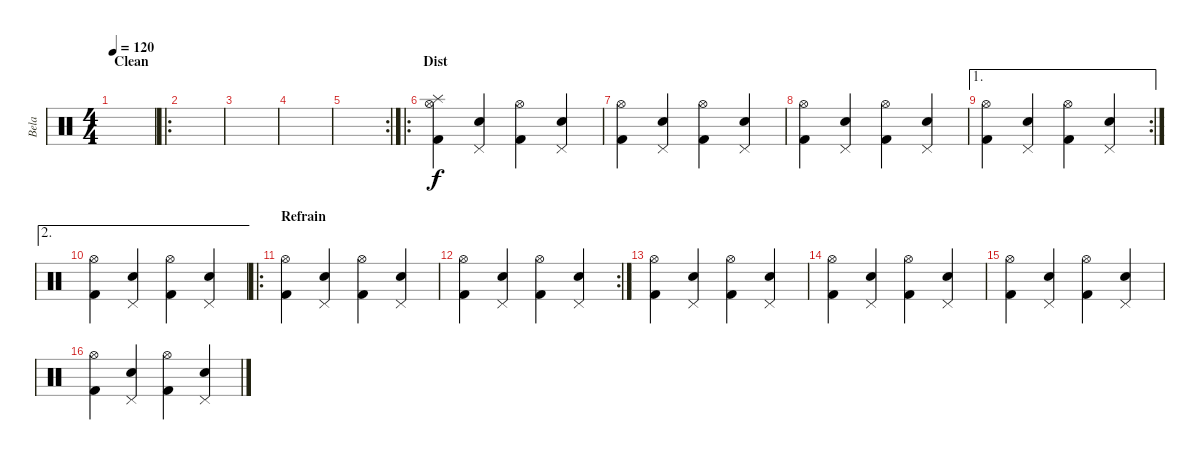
\track ("Bela" "Bela") {instrument percussion}
\staff {score}
\articulation defaults
\ts (4 4)
\section ("" "Clean")
\tempo 120
\clef neutral
\ks c
|
\ro
|
|
|
\rc 2
|
\ro
\section ("" "Dist")
("Hi-Hat (open)" "Splash (hit)" "Kick (hit) 2").4 ("Pedal Hi-Hat (hit)" "Electric Snare (hit)").4 ("Hi-Hat (open)" "Kick (hit) 2").4 ("Pedal Hi-Hat (hit)" "Electric Snare (hit)").4 |
("Hi-Hat (open)" "Kick (hit) 2").4 ("Pedal Hi-Hat (hit)" "Electric Snare (hit)").4 ("Hi-Hat (open)" "Kick (hit) 2").4 ("Pedal Hi-Hat (hit)" "Electric Snare (hit)").4 |
("Hi-Hat (open)" "Kick (hit) 2").4 ("Pedal Hi-Hat (hit)" "Electric Snare (hit)").4 ("Hi-Hat (open)" "Kick (hit) 2").4 ("Pedal Hi-Hat (hit)" "Electric Snare (hit)").4 |
\ae 1
\rc 2
("Hi-Hat (open)" "Kick (hit) 2").4 ("Pedal Hi-Hat (hit)" "Electric Snare (hit)").4 ("Hi-Hat (open)" "Kick (hit) 2").4 ("Pedal Hi-Hat (hit)" "Electric Snare (hit)").4 |
\ae 2
("Hi-Hat (open)" "Kick (hit) 2").4 ("Pedal Hi-Hat (hit)" "Electric Snare (hit)").4 ("Hi-Hat (open)" "Kick (hit) 2").4 ("Pedal Hi-Hat (hit)" "Electric Snare (hit)").4 |
\ro
\section ("" "Refrain")
("Hi-Hat (open)" "Kick (hit) 2").4 ("Pedal Hi-Hat (hit)" "Electric Snare (hit)").4 ("Hi-Hat (open)" "Kick (hit) 2").4 ("Pedal Hi-Hat (hit)" "Electric Snare (hit)").4 |
\rc 2
("Hi-Hat (open)" "Kick (hit) 2").4 ("Pedal Hi-Hat (hit)" "Electric Snare (hit)").4 ("Hi-Hat (open)" "Kick (hit) 2").4 ("Pedal Hi-Hat (hit)" "Electric Snare (hit)").4 |
("Hi-Hat (open)" "Kick (hit) 2").4 ("Pedal Hi-Hat (hit)" "Electric Snare (hit)").4 ("Hi-Hat (open)" "Kick (hit) 2").4 ("Pedal Hi-Hat (hit)" "Electric Snare (hit)").4 |
("Hi-Hat (open)" "Kick (hit) 2").4 ("Pedal Hi-Hat (hit)" "Electric Snare (hit)").4 ("Hi-Hat (open)" "Kick (hit) 2").4 ("Pedal Hi-Hat (hit)" "Electric Snare (hit)").4 |
("Hi-Hat (open)" "Kick (hit) 2").4 ("Pedal Hi-Hat (hit)" "Electric Snare (hit)").4 ("Hi-Hat (open)" "Kick (hit) 2").4 ("Pedal Hi-Hat (hit)" "Electric Snare (hit)").4 |
("Hi-Hat (open)" "Kick (hit) 2").4 ("Pedal Hi-Hat (hit)" "Electric Snare (hit)").4 ("Hi-Hat (open)" "Kick (hit) 2").4 ("Pedal Hi-Hat (hit)" "Electric Snare (hit)").4
